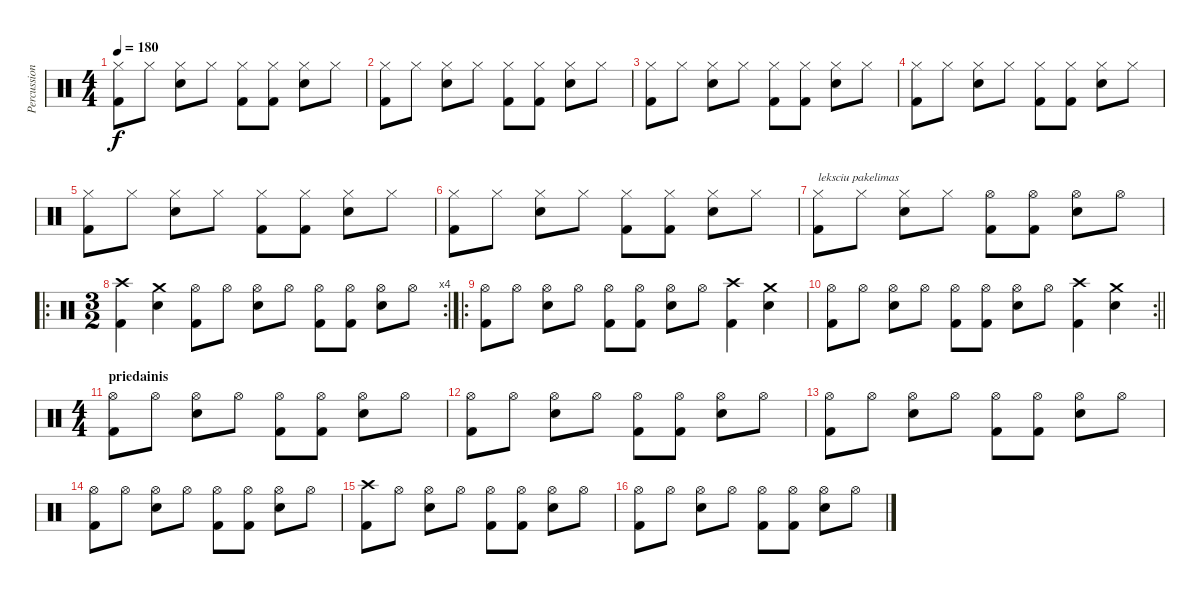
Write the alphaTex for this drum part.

\track ("Percussion" "Percussion") {instrument percussion}
\staff {score}
\articulation defaults
\ts (4 4)
\tempo 180
\clef neutral
\ks c
("Hi-Hat (closed)" "Kick (hit) 2").8{dy f} "Hi-Hat (closed)".8 ("Hi-Hat (closed)" "Snare (hit) 2").8 "Hi-Hat (closed)".8 ("Hi-Hat (closed)" "Kick (hit) 2").8 ("Hi-Hat (closed)" "Kick (hit) 2").8 ("Hi-Hat (closed)" "Snare (hit) 2").8 "Hi-Hat (closed)".8 |
("Hi-Hat (closed)" "Kick (hit) 2").8 "Hi-Hat (closed)".8 ("Hi-Hat (closed)" "Snare (hit) 2").8 "Hi-Hat (closed)".8 ("Hi-Hat (closed)" "Kick (hit) 2").8 ("Hi-Hat (closed)" "Kick (hit) 2").8 ("Hi-Hat (closed)" "Snare (hit) 2").8 "Hi-Hat (closed)".8 |
("Hi-Hat (closed)" "Kick (hit) 2").8 "Hi-Hat (closed)".8 ("Hi-Hat (closed)" "Snare (hit) 2").8 "Hi-Hat (closed)".8 ("Hi-Hat (closed)" "Kick (hit) 2").8 ("Hi-Hat (closed)" "Kick (hit) 2").8 ("Hi-Hat (closed)" "Snare (hit) 2").8 "Hi-Hat (closed)".8 |
("Hi-Hat (closed)" "Kick (hit) 2").8 "Hi-Hat (closed)".8 ("Hi-Hat (closed)" "Snare (hit) 2").8 "Hi-Hat (closed)".8 ("Hi-Hat (closed)" "Kick (hit) 2").8 ("Hi-Hat (closed)" "Kick (hit) 2").8 ("Hi-Hat (closed)" "Snare (hit) 2").8 "Hi-Hat (closed)".8 |
("Hi-Hat (closed)" "Kick (hit) 2").8 "Hi-Hat (closed)".8 ("Hi-Hat (closed)" "Snare (hit) 2").8 "Hi-Hat (closed)".8 ("Hi-Hat (closed)" "Kick (hit) 2").8 ("Hi-Hat (closed)" "Kick (hit) 2").8 ("Hi-Hat (closed)" "Snare (hit) 2").8 "Hi-Hat (closed)".8 |
("Hi-Hat (closed)" "Kick (hit) 2").8 "Hi-Hat (closed)".8 ("Hi-Hat (closed)" "Snare (hit) 2").8 "Hi-Hat (closed)".8 ("Hi-Hat (closed)" "Kick (hit) 2").8 ("Hi-Hat (closed)" "Kick (hit) 2").8 ("Hi-Hat (closed)" "Snare (hit) 2").8 "Hi-Hat (closed)".8 |
("Hi-Hat (closed)" "Kick (hit) 2").8{txt "leksciu pakelimas"} "Hi-Hat (closed)".8 ("Hi-Hat (closed)" "Snare (hit) 2").8 "Hi-Hat (closed)".8 ("Hi-Hat (open)" "Kick (hit) 2").8 ("Hi-Hat (open)" "Kick (hit) 2").8 ("Hi-Hat (open)" "Snare (hit) 2").8 "Hi-Hat (open)".8 |
\ro
\rc 4
\ts (3 2)
("Crash high (hit)" "Kick (hit) 2").4 ("Crash medium (hit)" "Snare (hit) 2").4 ("Hi-Hat (open)" "Kick (hit) 2").8 "Hi-Hat (open)".8 ("Hi-Hat (open)" "Snare (hit) 2").8 "Hi-Hat (open)".8 ("Hi-Hat (open)" "Kick (hit) 2").8 ("Hi-Hat (open)" "Kick (hit) 2").8 ("Hi-Hat (open)" "Snare (hit) 2").8 "Hi-Hat (open)".8 |
\ro
("Hi-Hat (open)" "Kick (hit) 2").8 "Hi-Hat (open)".8 ("Hi-Hat (open)" "Snare (hit) 2").8 "Hi-Hat (open)".8 ("Hi-Hat (open)" "Kick (hit) 2").8 ("Hi-Hat (open)" "Kick (hit) 2").8 ("Hi-Hat (open)" "Snare (hit) 2").8 "Hi-Hat (open)".8 ("Crash high (hit)" "Kick (hit) 2").4 ("Crash medium (hit)" "Snare (hit) 2").4 |
\rc 2
\barLineRight lightlight
("Hi-Hat (open)" "Kick (hit) 2").8 "Hi-Hat (open)".8 ("Hi-Hat (open)" "Snare (hit) 2").8 "Hi-Hat (open)".8 ("Hi-Hat (open)" "Kick (hit) 2").8 ("Hi-Hat (open)" "Kick (hit) 2").8 ("Hi-Hat (open)" "Snare (hit) 2").8 "Hi-Hat (open)".8 ("Crash high (hit)" "Kick (hit) 2").4 ("Crash medium (hit)" "Snare (hit) 2").4 |
\ts (4 4)
\section ("" "priedainis")
("Hi-Hat (open)" "Kick (hit) 2").8 "Hi-Hat (open)".8 ("Hi-Hat (open)" "Snare (hit) 2").8 "Hi-Hat (open)".8 ("Hi-Hat (open)" "Kick (hit) 2").8 ("Hi-Hat (open)" "Kick (hit) 2").8 ("Hi-Hat (open)" "Snare (hit) 2").8 "Hi-Hat (open)".8 |
("Hi-Hat (open)" "Kick (hit) 2").8 "Hi-Hat (open)".8 ("Hi-Hat (open)" "Snare (hit) 2").8 "Hi-Hat (open)".8 ("Hi-Hat (open)" "Kick (hit) 2").8 ("Hi-Hat (open)" "Kick (hit) 2").8 ("Hi-Hat (open)" "Snare (hit) 2").8 "Hi-Hat (open)".8 |
("Hi-Hat (open)" "Kick (hit) 2").8 "Hi-Hat (open)".8 ("Hi-Hat (open)" "Snare (hit) 2").8 "Hi-Hat (open)".8 ("Hi-Hat (open)" "Kick (hit) 2").8 ("Hi-Hat (open)" "Kick (hit) 2").8 ("Hi-Hat (open)" "Snare (hit) 2").8 "Hi-Hat (open)".8 |
("Hi-Hat (open)" "Kick (hit) 2").8 "Hi-Hat (open)".8 ("Hi-Hat (open)" "Snare (hit) 2").8 "Hi-Hat (open)".8 ("Hi-Hat (open)" "Kick (hit) 2").8 ("Hi-Hat (open)" "Kick (hit) 2").8 ("Hi-Hat (open)" "Snare (hit) 2").8 "Hi-Hat (open)".8 |
("Crash high (hit)" "Kick (hit) 2").8 "Hi-Hat (open)".8 ("Hi-Hat (open)" "Snare (hit) 2").8 "Hi-Hat (open)".8 ("Hi-Hat (open)" "Kick (hit) 2").8 ("Hi-Hat (open)" "Kick (hit) 2").8 ("Hi-Hat (open)" "Snare (hit) 2").8 "Hi-Hat (open)".8 |
("Hi-Hat (open)" "Kick (hit) 2").8 "Hi-Hat (open)".8 ("Hi-Hat (open)" "Snare (hit) 2").8 "Hi-Hat (open)".8 ("Hi-Hat (open)" "Kick (hit) 2").8 ("Hi-Hat (open)" "Kick (hit) 2").8 ("Hi-Hat (open)" "Snare (hit) 2").8 "Hi-Hat (open)".8
